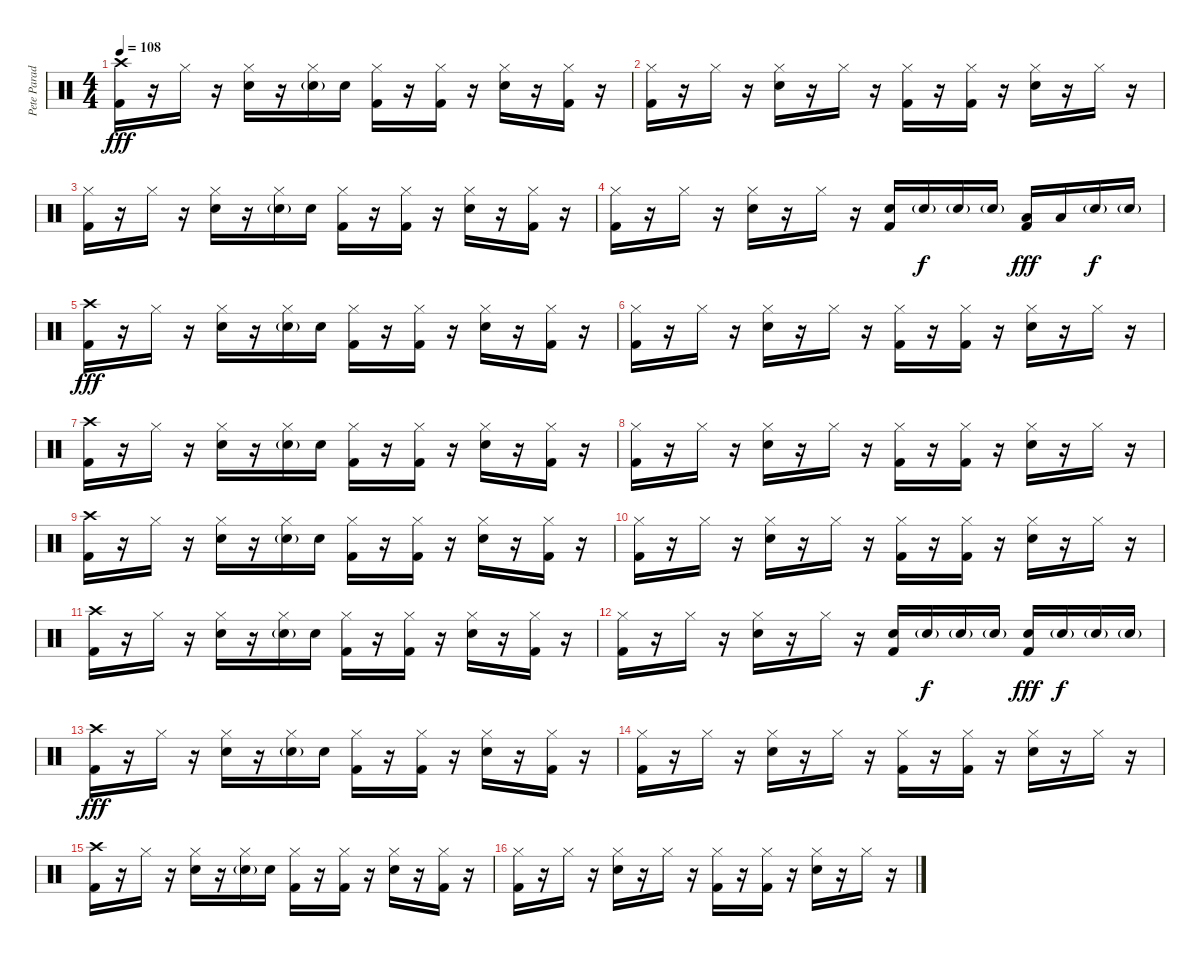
\track ("Pete Parada - Drums" "Pete Parad") {instrument percussion}
\staff {score}
\articulation defaults
\ts (4 4)
\tempo 108
\clef neutral
\ks c
("Crash high (hit)" "Kick (hit) 2").16{dy fff} r.16 "Hi-Hat (closed)".16 r.16 ("Hi-Hat (closed)" "Electric Snare (hit)").16 r.16 ("Hi-Hat (closed)" "Electric Snare (hit)"{g}).16 "Electric Snare (hit)".16 ("Hi-Hat (closed)" "Kick (hit) 2").16 r.16 ("Hi-Hat (closed)" "Kick (hit) 2").16 r.16 ("Hi-Hat (closed)" "Electric Snare (hit)").16 r.16 ("Hi-Hat (closed)" "Kick (hit) 2").16 r.16 |
("Hi-Hat (closed)" "Kick (hit) 2").16 r.16 "Hi-Hat (closed)".16 r.16 ("Hi-Hat (closed)" "Electric Snare (hit)").16 r.16 "Hi-Hat (closed)".16 r.16 ("Hi-Hat (closed)" "Kick (hit) 2").16 r.16 ("Hi-Hat (closed)" "Kick (hit) 2").16 r.16 ("Hi-Hat (closed)" "Electric Snare (hit)").16 r.16 "Hi-Hat (closed)".16 r.16 |
("Hi-Hat (closed)" "Kick (hit) 2").16 r.16 "Hi-Hat (closed)".16 r.16 ("Hi-Hat (closed)" "Electric Snare (hit)").16 r.16 ("Hi-Hat (closed)" "Electric Snare (hit)"{g}).16 "Electric Snare (hit)".16 ("Hi-Hat (closed)" "Kick (hit) 2").16 r.16 ("Hi-Hat (closed)" "Kick (hit) 2").16 r.16 ("Hi-Hat (closed)" "Electric Snare (hit)").16 r.16 ("Hi-Hat (closed)" "Kick (hit) 2").16 r.16 |
("Hi-Hat (closed)" "Kick (hit) 2").16 r.16 "Hi-Hat (closed)".16 r.16 ("Hi-Hat (closed)" "Electric Snare (hit)").16 r.16 "Hi-Hat (closed)".16 r.16 ("Electric Snare (hit)" "Kick (hit) 2").16 "Electric Snare (hit)"{g}.16{dy f} "Electric Snare (hit)"{g}.16 "Electric Snare (hit)"{g}.16 ("Low Tom (hit)" "Kick (hit) 2").16{dy fff} "Low Floor Tom (hit)".16 "Electric Snare (hit)"{g}.16{dy f} "Electric Snare (hit)"{g}.16 |
("Crash high (hit)" "Kick (hit) 2").16{dy fff} r.16 "Hi-Hat (closed)".16 r.16 ("Hi-Hat (closed)" "Electric Snare (hit)").16 r.16 ("Hi-Hat (closed)" "Electric Snare (hit)"{g}).16 "Electric Snare (hit)".16 ("Hi-Hat (closed)" "Kick (hit) 2").16 r.16 ("Hi-Hat (closed)" "Kick (hit) 2").16 r.16 ("Hi-Hat (closed)" "Electric Snare (hit)").16 r.16 ("Hi-Hat (closed)" "Kick (hit) 2").16 r.16 |
("Hi-Hat (closed)" "Kick (hit) 2").16 r.16 "Hi-Hat (closed)".16 r.16 ("Hi-Hat (closed)" "Electric Snare (hit)").16 r.16 "Hi-Hat (closed)".16 r.16 ("Hi-Hat (closed)" "Kick (hit) 2").16 r.16 ("Hi-Hat (closed)" "Kick (hit) 2").16 r.16 ("Hi-Hat (closed)" "Electric Snare (hit)").16 r.16 "Hi-Hat (closed)".16 r.16 |
("Crash high (hit)" "Kick (hit) 2").16 r.16 "Hi-Hat (closed)".16 r.16 ("Hi-Hat (closed)" "Electric Snare (hit)").16 r.16 ("Hi-Hat (closed)" "Electric Snare (hit)"{g}).16 "Electric Snare (hit)".16 ("Hi-Hat (closed)" "Kick (hit) 2").16 r.16 ("Hi-Hat (closed)" "Kick (hit) 2").16 r.16 ("Hi-Hat (closed)" "Electric Snare (hit)").16 r.16 ("Hi-Hat (closed)" "Kick (hit) 2").16 r.16 |
("Hi-Hat (closed)" "Kick (hit) 2").16 r.16 "Hi-Hat (closed)".16 r.16 ("Hi-Hat (closed)" "Electric Snare (hit)").16 r.16 "Hi-Hat (closed)".16 r.16 ("Hi-Hat (closed)" "Kick (hit) 2").16 r.16 ("Hi-Hat (closed)" "Kick (hit) 2").16 r.16 ("Hi-Hat (closed)" "Electric Snare (hit)").16 r.16 "Hi-Hat (closed)".16 r.16 |
("Crash high (hit)" "Kick (hit) 2").16 r.16 "Hi-Hat (closed)".16 r.16 ("Hi-Hat (closed)" "Electric Snare (hit)").16 r.16 ("Hi-Hat (closed)" "Electric Snare (hit)"{g}).16 "Electric Snare (hit)".16 ("Hi-Hat (closed)" "Kick (hit) 2").16 r.16 ("Hi-Hat (closed)" "Kick (hit) 2").16 r.16 ("Hi-Hat (closed)" "Electric Snare (hit)").16 r.16 ("Hi-Hat (closed)" "Kick (hit) 2").16 r.16 |
("Hi-Hat (closed)" "Kick (hit) 2").16 r.16 "Hi-Hat (closed)".16 r.16 ("Hi-Hat (closed)" "Electric Snare (hit)").16 r.16 "Hi-Hat (closed)".16 r.16 ("Hi-Hat (closed)" "Kick (hit) 2").16 r.16 ("Hi-Hat (closed)" "Kick (hit) 2").16 r.16 ("Hi-Hat (closed)" "Electric Snare (hit)").16 r.16 "Hi-Hat (closed)".16 r.16 |
("Crash high (hit)" "Kick (hit) 2").16 r.16 "Hi-Hat (closed)".16 r.16 ("Hi-Hat (closed)" "Electric Snare (hit)").16 r.16 ("Hi-Hat (closed)" "Electric Snare (hit)"{g}).16 "Electric Snare (hit)".16 ("Hi-Hat (closed)" "Kick (hit) 2").16 r.16 ("Hi-Hat (closed)" "Kick (hit) 2").16 r.16 ("Hi-Hat (closed)" "Electric Snare (hit)").16 r.16 ("Hi-Hat (closed)" "Kick (hit) 2").16 r.16 |
("Hi-Hat (closed)" "Kick (hit) 2").16 r.16 "Hi-Hat (closed)".16 r.16 ("Hi-Hat (closed)" "Electric Snare (hit)").16 r.16 "Hi-Hat (closed)".16 r.16 ("Electric Snare (hit)" "Kick (hit) 2").16 "Electric Snare (hit)"{g}.16{dy f} "Electric Snare (hit)"{g}.16 "Electric Snare (hit)"{g}.16 ("Electric Snare (hit)" "Kick (hit) 2").16{dy fff} "Electric Snare (hit)"{g}.16{dy f} "Electric Snare (hit)"{g}.16 "Electric Snare (hit)"{g}.16 |
("Crash high (hit)" "Kick (hit) 2").16{dy fff} r.16 "Hi-Hat (closed)".16 r.16 ("Hi-Hat (closed)" "Electric Snare (hit)").16 r.16 ("Hi-Hat (closed)" "Electric Snare (hit)"{g}).16 "Electric Snare (hit)".16 ("Hi-Hat (closed)" "Kick (hit) 2").16 r.16 ("Hi-Hat (closed)" "Kick (hit) 2").16 r.16 ("Hi-Hat (closed)" "Electric Snare (hit)").16 r.16 ("Hi-Hat (closed)" "Kick (hit) 2").16 r.16 |
("Hi-Hat (closed)" "Kick (hit) 2").16 r.16 "Hi-Hat (closed)".16 r.16 ("Hi-Hat (closed)" "Electric Snare (hit)").16 r.16 "Hi-Hat (closed)".16 r.16 ("Hi-Hat (closed)" "Kick (hit) 2").16 r.16 ("Hi-Hat (closed)" "Kick (hit) 2").16 r.16 ("Hi-Hat (closed)" "Electric Snare (hit)").16 r.16 "Hi-Hat (closed)".16 r.16 |
("Crash high (hit)" "Kick (hit) 2").16 r.16 "Hi-Hat (closed)".16 r.16 ("Hi-Hat (closed)" "Electric Snare (hit)").16 r.16 ("Hi-Hat (closed)" "Electric Snare (hit)"{g}).16 "Electric Snare (hit)".16 ("Hi-Hat (closed)" "Kick (hit) 2").16 r.16 ("Hi-Hat (closed)" "Kick (hit) 2").16 r.16 ("Hi-Hat (closed)" "Electric Snare (hit)").16 r.16 ("Hi-Hat (closed)" "Kick (hit) 2").16 r.16 |
("Hi-Hat (closed)" "Kick (hit) 2").16 r.16 "Hi-Hat (closed)".16 r.16 ("Hi-Hat (closed)" "Electric Snare (hit)").16 r.16 "Hi-Hat (closed)".16 r.16 ("Hi-Hat (closed)" "Kick (hit) 2").16 r.16 ("Hi-Hat (closed)" "Kick (hit) 2").16 r.16 ("Hi-Hat (closed)" "Electric Snare (hit)").16 r.16 "Hi-Hat (closed)".16 r.16
